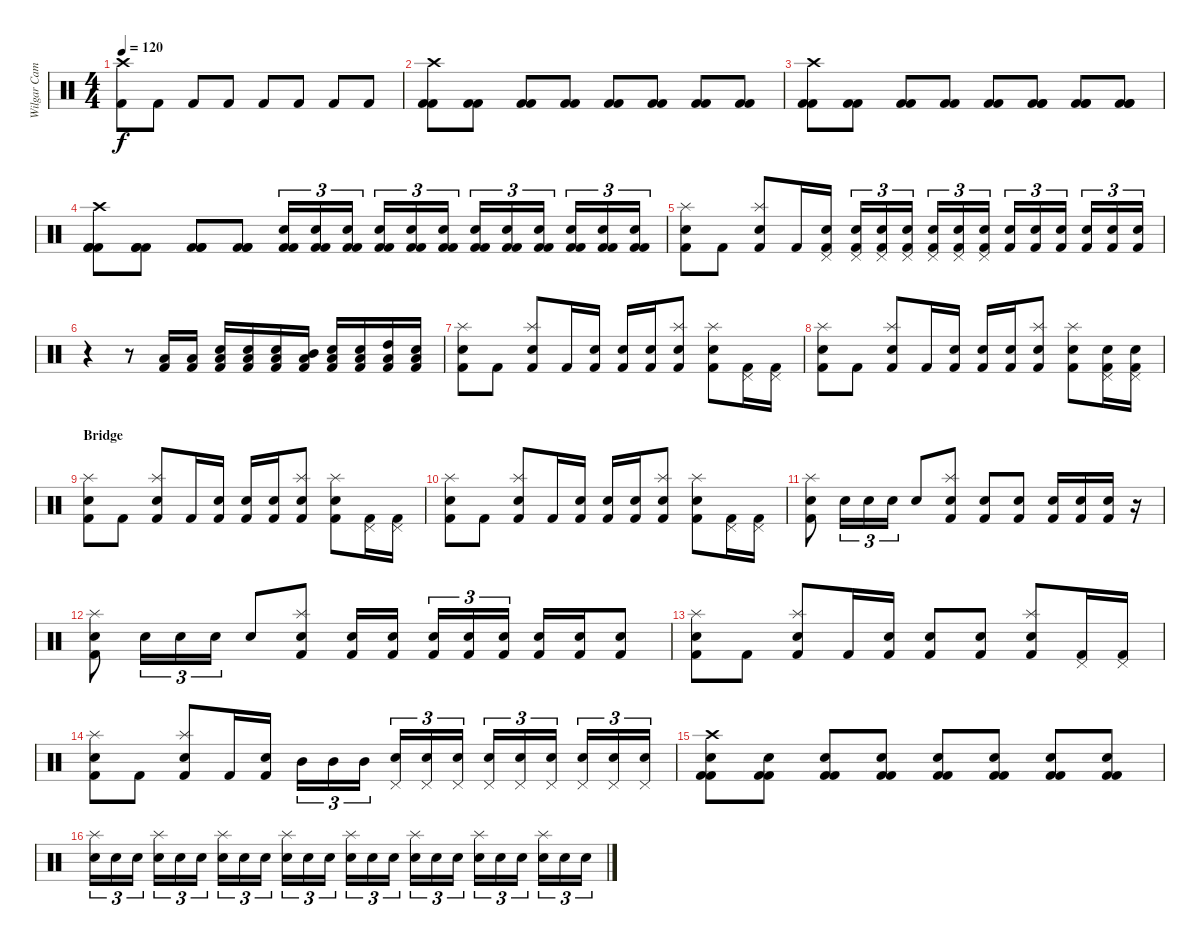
\track ("Wilgar Campbell" "Wilgar Cam") {instrument percussion}
\staff {score}
\articulation defaults
\ts (4 4)
\tempo 120
\clef neutral
\ks c
("Crash high (hit)" "Kick (hit) 2").8{dy f} "Kick (hit) 2".8 "Kick (hit) 2".8 "Kick (hit) 2".8 "Kick (hit) 2".8 "Kick (hit) 2".8 "Kick (hit) 2".8 "Kick (hit) 2".8 |
("Crash high (hit)" "Kick (hit) 2" "Kick (hit) 2").8 ("Kick (hit) 2" "Kick (hit) 2").8 ("Kick (hit) 2" "Kick (hit) 2").8 ("Kick (hit) 2" "Kick (hit) 2").8 ("Kick (hit) 2" "Kick (hit) 2").8 ("Kick (hit) 2" "Kick (hit) 2").8 ("Kick (hit) 2" "Kick (hit) 2").8 ("Kick (hit) 2" "Kick (hit) 2").8 |
("Crash high (hit)" "Kick (hit) 2" "Kick (hit) 2").8 ("Kick (hit) 2" "Kick (hit) 2").8 ("Kick (hit) 2" "Kick (hit) 2").8 ("Kick (hit) 2" "Kick (hit) 2").8 ("Kick (hit) 2" "Kick (hit) 2").8 ("Kick (hit) 2" "Kick (hit) 2" "Kick (hit) 2").8 ("Kick (hit) 2" "Kick (hit) 2" "Kick (hit) 2").8 ("Kick (hit) 2" "Kick (hit) 2" "Kick (hit) 2").8 |
("Crash high (hit)" "Kick (hit) 2" "Kick (hit) 2" "Kick (hit) 2").8 ("Kick (hit) 2" "Kick (hit) 2" "Kick (hit) 2").8 ("Kick (hit) 2" "Kick (hit) 2" "Kick (hit) 2").8 ("Kick (hit) 2" "Kick (hit) 2" "Kick (hit) 2").8 ("Snare (hit) 2" "Kick (hit) 2" "Kick (hit) 2").16{tu (3 2)} ("Snare (hit) 2" "Kick (hit) 2" "Kick (hit) 2").16{tu (3 2)} ("Snare (hit) 2" "Kick (hit) 2" "Kick (hit) 2").16{tu (3 2)} ("Snare (hit) 2" "Kick (hit) 2" "Kick (hit) 2").16{tu (3 2)} ("Snare (hit) 2" "Kick (hit) 2" "Kick (hit) 2").16{tu (3 2)} ("Snare (hit) 2" "Kick (hit) 2" "Kick (hit) 2").16{tu (3 2)} ("Snare (hit) 2" "Kick (hit) 2" "Kick (hit) 2").16{tu (3 2)} ("Snare (hit) 2" "Kick (hit) 2" "Kick (hit) 2").16{tu (3 2)} ("Snare (hit) 2" "Kick (hit) 2" "Kick (hit) 2").16{tu (3 2)} ("Snare (hit) 2" "Kick (hit) 2" "Kick (hit) 2").16{tu (3 2)} ("Snare (hit) 2" "Kick (hit) 2" "Kick (hit) 2").16{tu (3 2)} ("Snare (hit) 2" "Kick (hit) 2" "Kick (hit) 2").16{tu (3 2)} |
("Splash (hit)" "Snare (hit) 2" "Kick (hit) 2").8 "Kick (hit) 2".8 ("Splash (hit)" "Electric Snare (hit)" "Kick (hit) 2").8 "Kick (hit) 2".16 ("Pedal Hi-Hat (hit)" "Snare (hit) 2" "Kick (hit) 2").16 ("Pedal Hi-Hat (hit)" "Snare (hit) 2" "Kick (hit) 2").16{tu (3 2)} ("Pedal Hi-Hat (hit)" "Snare (hit) 2" "Kick (hit) 2").16{tu (3 2)} ("Pedal Hi-Hat (hit)" "Snare (hit) 2" "Kick (hit) 2").16{tu (3 2)} ("Pedal Hi-Hat (hit)" "Snare (hit) 2" "Kick (hit) 2").16{tu (3 2)} ("Pedal Hi-Hat (hit)" "Snare (hit) 2" "Kick (hit) 2").16{tu (3 2)} ("Pedal Hi-Hat (hit)" "Snare (hit) 2" "Kick (hit) 2").16{tu (3 2)} ("Electric Snare (hit)" "Kick (hit) 2").16{tu (3 2)} ("Electric Snare (hit)" "Kick (hit) 2").16{tu (3 2)} ("Electric Snare (hit)" "Kick (hit) 2").16{tu (3 2)} ("Electric Snare (hit)" "Kick (hit) 2").16{tu (3 2)} ("Electric Snare (hit)" "Kick (hit) 2").16{tu (3 2)} ("Electric Snare (hit)" "Kick (hit) 2").16{tu (3 2)} |
r.4 r.8 ("Low Tom (hit)" "Kick (hit) 2").16 ("Low Tom (hit)" "Kick (hit) 2").16 ("Snare (hit) 2" "Low Tom (hit)" "Kick (hit) 2").16 ("Electric Snare (hit)" "Low Tom (hit)" "Kick (hit) 2").16 ("Snare (hit) 2" "Low Tom (hit)" "Kick (hit) 2").16 ("Mid Tom (hit)" "Low Tom (hit)" "Kick (hit) 2").16 ("Electric Snare (hit)" "Low Tom (hit)" "Kick (hit) 2").16 ("Snare (hit) 2" "Low Tom (hit)" "Kick (hit) 2").16 ("High Tom (hit)" "Low Tom (hit)" "Kick (hit) 2").16 ("Electric Snare (hit)" "Low Tom (hit)" "Kick (hit) 2").16 |
("Splash (hit)" "Snare (hit) 2" "Kick (hit) 2").8 "Kick (hit) 2".8 ("Splash (hit)" "Electric Snare (hit)" "Kick (hit) 2").8 "Kick (hit) 2".16 ("Snare (hit) 2" "Kick (hit) 2").16 ("Snare (hit) 2" "Kick (hit) 2").16 ("Electric Snare (hit)" "Kick (hit) 2").16 ("Splash (hit)" "Electric Snare (hit)" "Kick (hit) 2").8 ("Splash (hit)" "Snare (hit) 2" "Kick (hit) 2").8 ("Pedal Hi-Hat (hit)" "Kick (hit) 2").16 ("Pedal Hi-Hat (hit)" "Kick (hit) 2").16 |
("Splash (hit)" "Snare (hit) 2" "Kick (hit) 2").8 "Kick (hit) 2".8 ("Splash (hit)" "Electric Snare (hit)" "Kick (hit) 2").8 "Kick (hit) 2".16 ("Snare (hit) 2" "Kick (hit) 2").16 ("Snare (hit) 2" "Kick (hit) 2").16 ("Electric Snare (hit)" "Kick (hit) 2").16 ("Splash (hit)" "Electric Snare (hit)" "Kick (hit) 2").8 ("Splash (hit)" "Snare (hit) 2" "Kick (hit) 2").8 ("Pedal Hi-Hat (hit)" "Snare (hit) 2" "Kick (hit) 2").16 ("Pedal Hi-Hat (hit)" "Snare (hit) 2" "Kick (hit) 2").16 |
\section ("" "Bridge")
("Splash (hit)" "Snare (hit) 2" "Kick (hit) 2").8 "Kick (hit) 2".8 ("Splash (hit)" "Electric Snare (hit)" "Kick (hit) 2").8 "Kick (hit) 2".16 ("Snare (hit) 2" "Kick (hit) 2").16 ("Snare (hit) 2" "Kick (hit) 2").16 ("Electric Snare (hit)" "Kick (hit) 2").16 ("Splash (hit)" "Electric Snare (hit)" "Kick (hit) 2").8 ("Splash (hit)" "Snare (hit) 2" "Kick (hit) 2").8 ("Pedal Hi-Hat (hit)" "Kick (hit) 2").16 ("Pedal Hi-Hat (hit)" "Kick (hit) 2").16 |
("Splash (hit)" "Snare (hit) 2" "Kick (hit) 2").8 "Kick (hit) 2".8 ("Splash (hit)" "Electric Snare (hit)" "Kick (hit) 2").8 "Kick (hit) 2".16 ("Snare (hit) 2" "Kick (hit) 2").16 ("Snare (hit) 2" "Kick (hit) 2").16 ("Electric Snare (hit)" "Kick (hit) 2").16 ("Splash (hit)" "Electric Snare (hit)" "Kick (hit) 2").8 ("Splash (hit)" "Snare (hit) 2" "Kick (hit) 2").8 ("Pedal Hi-Hat (hit)" "Kick (hit) 2").16 ("Pedal Hi-Hat (hit)" "Kick (hit) 2").16 |
("Splash (hit)" "Kick (hit) 2" "Snare (hit) 2").8 "Electric Snare (hit)".16{tu (3 2)} "Electric Snare (hit)".16{tu (3 2)} "Electric Snare (hit)".16{tu (3 2)} "Electric Snare (hit)".8 ("Splash (hit)" "Electric Snare (hit)" "Kick (hit) 2").8 ("Snare (hit) 2" "Kick (hit) 2").8 ("Electric Snare (hit)" "Kick (hit) 2").8 ("Electric Snare (hit)" "Kick (hit) 2").16 ("Electric Snare (hit)" "Kick (hit) 2").16 ("Electric Snare (hit)" "Kick (hit) 2").16 r.16 |
("Splash (hit)" "Kick (hit) 2" "Snare (hit) 2").8 "Electric Snare (hit)".16{tu (3 2)} "Electric Snare (hit)".16{tu (3 2)} "Electric Snare (hit)".16{tu (3 2)} "Electric Snare (hit)".8 ("Splash (hit)" "Electric Snare (hit)" "Kick (hit) 2").8 ("Snare (hit) 2" "Kick (hit) 2").16 ("Electric Snare (hit)" "Kick (hit) 2").16 ("Electric Snare (hit)" "Kick (hit) 2").16{tu (3 2)} ("Electric Snare (hit)" "Kick (hit) 2").16{tu (3 2)} ("Electric Snare (hit)" "Kick (hit) 2").16{tu (3 2)} ("Electric Snare (hit)" "Kick (hit) 2").16 ("Electric Snare (hit)" "Kick (hit) 2").16 ("Electric Snare (hit)" "Kick (hit) 2").8 |
("Splash (hit)" "Snare (hit) 2" "Kick (hit) 2").8 "Kick (hit) 2".8 ("Splash (hit)" "Electric Snare (hit)" "Kick (hit) 2").8 "Kick (hit) 2".16 ("Snare (hit) 2" "Kick (hit) 2").16 ("Snare (hit) 2" "Kick (hit) 2").8 ("Electric Snare (hit)" "Kick (hit) 2").8 ("Splash (hit)" "Electric Snare (hit)" "Kick (hit) 2").8 ("Pedal Hi-Hat (hit)" "Kick (hit) 2").16 ("Pedal Hi-Hat (hit)" "Kick (hit) 2").16 |
("Splash (hit)" "Snare (hit) 2" "Kick (hit) 2").8 "Kick (hit) 2".8 ("Splash (hit)" "Electric Snare (hit)" "Kick (hit) 2").8 "Kick (hit) 2".16 ("Snare (hit) 2" "Kick (hit) 2").16 "Mid Tom (hit)".16{tu (3 2)} "Mid Tom (hit)".16{tu (3 2)} "Mid Tom (hit)".16{tu (3 2)} ("Pedal Hi-Hat (hit)" "Snare (hit) 2").16{tu (3 2)} ("Pedal Hi-Hat (hit)" "Snare (hit) 2").16{tu (3 2)} ("Pedal Hi-Hat (hit)" "Snare (hit) 2").16{tu (3 2)} ("Pedal Hi-Hat (hit)" "Snare (hit) 2").16{tu (3 2)} ("Pedal Hi-Hat (hit)" "Snare (hit) 2").16{tu (3 2)} ("Pedal Hi-Hat (hit)" "Snare (hit) 2").16{tu (3 2)} ("Pedal Hi-Hat (hit)" "Snare (hit) 2").16{tu (3 2)} ("Pedal Hi-Hat (hit)" "Snare (hit) 2").16{tu (3 2)} ("Pedal Hi-Hat (hit)" "Snare (hit) 2").16{tu (3 2)} |
("Crash high (hit)" "Snare (hit) 2" "Kick (hit) 2" "Kick (hit) 2").8 ("Snare (hit) 2" "Kick (hit) 2" "Kick (hit) 2").8 ("Snare (hit) 2" "Kick (hit) 2" "Kick (hit) 2").8 ("Snare (hit) 2" "Kick (hit) 2" "Kick (hit) 2").8 ("Snare (hit) 2" "Kick (hit) 2" "Kick (hit) 2").8 ("Snare (hit) 2" "Kick (hit) 2" "Kick (hit) 2").8 ("Snare (hit) 2" "Kick (hit) 2" "Kick (hit) 2").8 ("Snare (hit) 2" "Kick (hit) 2" "Kick (hit) 2").8 |
("Splash (hit)" "Electric Snare (hit)").16{tu (3 2)} "Electric Snare (hit)".16{tu (3 2)} "Electric Snare (hit)".16{tu (3 2)} ("Splash (hit)" "Electric Snare (hit)").16{tu (3 2)} "Electric Snare (hit)".16{tu (3 2)} "Electric Snare (hit)".16{tu (3 2)} ("Splash (hit)" "Electric Snare (hit)").16{tu (3 2)} "Electric Snare (hit)".16{tu (3 2)} "Electric Snare (hit)".16{tu (3 2)} ("Splash (hit)" "Snare (hit) 2").16{tu (3 2)} "Snare (hit) 2".16{tu (3 2)} "Snare (hit) 2".16{tu (3 2)} ("Splash (hit)" "Snare (hit) 2").16{tu (3 2)} "Snare (hit) 2".16{tu (3 2)} "Snare (hit) 2".16{tu (3 2)} ("Splash (hit)" "Snare (hit) 2").16{tu (3 2)} "Snare (hit) 2".16{tu (3 2)} "Snare (hit) 2".16{tu (3 2)} ("Splash (hit)" "Electric Snare (hit)").16{tu (3 2)} "Electric Snare (hit)".16{tu (3 2)} "Electric Snare (hit)".16{tu (3 2)} ("Splash (hit)" "Snare (hit) 2").16{tu (3 2)} "Snare (hit) 2".16{tu (3 2)} "Snare (hit) 2".16{tu (3 2)}
